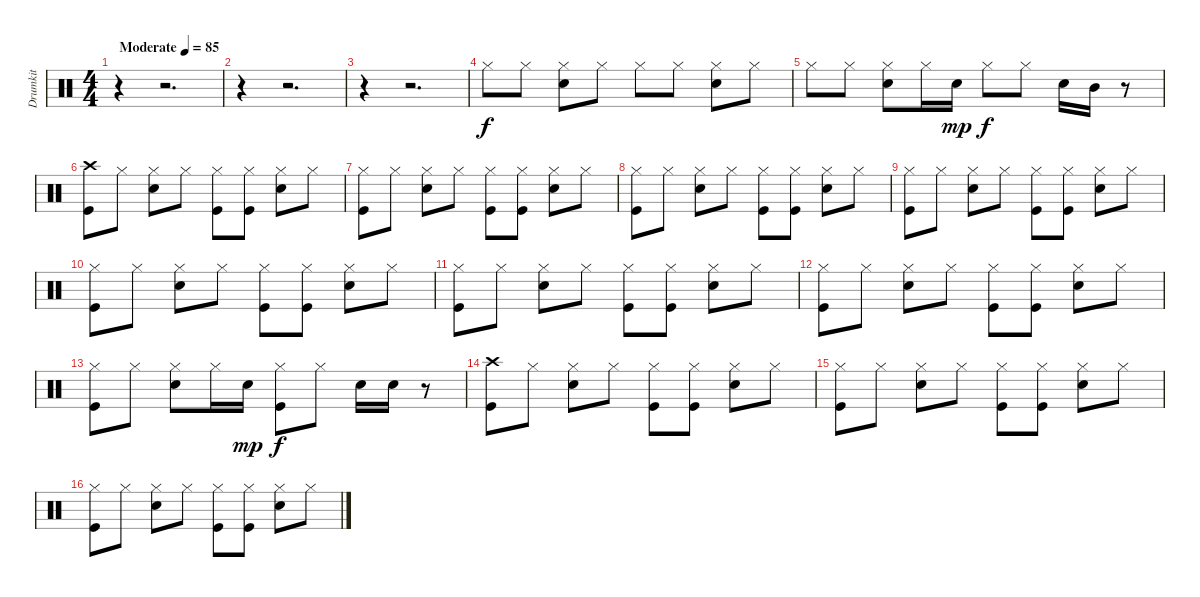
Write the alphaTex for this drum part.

\track ("Drumkit" "Drumkit") {instrument percussion}
\staff {score}
\articulation defaults
\ts (4 4)
\tempo (85 "Moderate")
\clef neutral
\ks c
r.4{dy f} r.2{d} |
r.4 r.2{d} |
r.4 r.2{d} |
"Hi-Hat (closed)".8 "Hi-Hat (closed)".8 ("Hi-Hat (closed)" "Snare (hit) 2").8 "Hi-Hat (closed)".8 "Hi-Hat (closed)".8 "Hi-Hat (closed)".8 ("Hi-Hat (closed)" "Snare (hit) 2").8 "Hi-Hat (closed)".8 |
"Hi-Hat (closed)".8 "Hi-Hat (closed)".8 ("Hi-Hat (closed)" "Snare (hit) 2").8 "Hi-Hat (closed)".16 "Snare (hit) 2".16{dy mp} "Hi-Hat (closed)".8{dy f} "Hi-Hat (closed)".8 "Snare (hit) 2".16 "Mid Tom (hit)".16 r.8 |
("Crash high (hit)" "Kick (hit)").8 "Hi-Hat (closed)".8 ("Hi-Hat (closed)" "Snare (hit) 2").8 "Hi-Hat (closed)".8 ("Hi-Hat (closed)" "Kick (hit)").8 ("Hi-Hat (closed)" "Kick (hit)").8 ("Hi-Hat (closed)" "Snare (hit) 2").8 "Hi-Hat (closed)".8 |
("Hi-Hat (closed)" "Kick (hit)").8 "Hi-Hat (closed)".8 ("Hi-Hat (closed)" "Snare (hit) 2").8 "Hi-Hat (closed)".8 ("Hi-Hat (closed)" "Kick (hit)").8 ("Hi-Hat (closed)" "Kick (hit)").8 ("Hi-Hat (closed)" "Snare (hit) 2").8 "Hi-Hat (closed)".8 |
("Hi-Hat (closed)" "Kick (hit)").8 "Hi-Hat (closed)".8 ("Hi-Hat (closed)" "Snare (hit) 2").8 "Hi-Hat (closed)".8 ("Hi-Hat (closed)" "Kick (hit)").8 ("Hi-Hat (closed)" "Kick (hit)").8 ("Hi-Hat (closed)" "Snare (hit) 2").8 "Hi-Hat (closed)".8 |
("Hi-Hat (closed)" "Kick (hit)").8 "Hi-Hat (closed)".8 ("Hi-Hat (closed)" "Snare (hit) 2").8 "Hi-Hat (closed)".8 ("Hi-Hat (closed)" "Kick (hit)").8 ("Hi-Hat (closed)" "Kick (hit)").8 ("Hi-Hat (closed)" "Snare (hit) 2").8 "Hi-Hat (closed)".8 |
("Hi-Hat (closed)" "Kick (hit)").8 "Hi-Hat (closed)".8 ("Hi-Hat (closed)" "Snare (hit) 2").8 "Hi-Hat (closed)".8 ("Hi-Hat (closed)" "Kick (hit)").8 ("Hi-Hat (closed)" "Kick (hit)").8 ("Hi-Hat (closed)" "Snare (hit) 2").8 "Hi-Hat (closed)".8 |
("Hi-Hat (closed)" "Kick (hit)").8 "Hi-Hat (closed)".8 ("Hi-Hat (closed)" "Snare (hit) 2").8 "Hi-Hat (closed)".8 ("Hi-Hat (closed)" "Kick (hit)").8 ("Hi-Hat (closed)" "Kick (hit)").8 ("Hi-Hat (closed)" "Snare (hit) 2").8 "Hi-Hat (closed)".8 |
("Hi-Hat (closed)" "Kick (hit)").8 "Hi-Hat (closed)".8 ("Hi-Hat (closed)" "Snare (hit) 2").8 "Hi-Hat (closed)".8 ("Hi-Hat (closed)" "Kick (hit)").8 ("Hi-Hat (closed)" "Kick (hit)").8 ("Hi-Hat (closed)" "Snare (hit) 2").8 "Hi-Hat (closed)".8 |
("Hi-Hat (closed)" "Kick (hit)").8 "Hi-Hat (closed)".8 ("Hi-Hat (closed)" "Snare (hit) 2").8 "Hi-Hat (closed)".16 "Snare (hit) 2".16{dy mp} ("Hi-Hat (closed)" "Kick (hit)").8{dy f} "Hi-Hat (closed)".8 "Snare (hit) 2".16 "Snare (hit) 2".16 r.8 |
("Crash high (hit)" "Kick (hit)").8 "Hi-Hat (closed)".8 ("Hi-Hat (closed)" "Snare (hit) 2").8 "Hi-Hat (closed)".8 ("Hi-Hat (closed)" "Kick (hit)").8 ("Hi-Hat (closed)" "Kick (hit)").8 ("Hi-Hat (closed)" "Snare (hit) 2").8 "Hi-Hat (closed)".8 |
("Hi-Hat (closed)" "Kick (hit)").8 "Hi-Hat (closed)".8 ("Hi-Hat (closed)" "Snare (hit) 2").8 "Hi-Hat (closed)".8 ("Hi-Hat (closed)" "Kick (hit)").8 ("Hi-Hat (closed)" "Kick (hit)").8 ("Hi-Hat (closed)" "Snare (hit) 2").8 "Hi-Hat (closed)".8 |
("Hi-Hat (closed)" "Kick (hit)").8 "Hi-Hat (closed)".8 ("Hi-Hat (closed)" "Snare (hit) 2").8 "Hi-Hat (closed)".8 ("Hi-Hat (closed)" "Kick (hit)").8 ("Hi-Hat (closed)" "Kick (hit)").8 ("Hi-Hat (closed)" "Snare (hit) 2").8 "Hi-Hat (closed)".8
